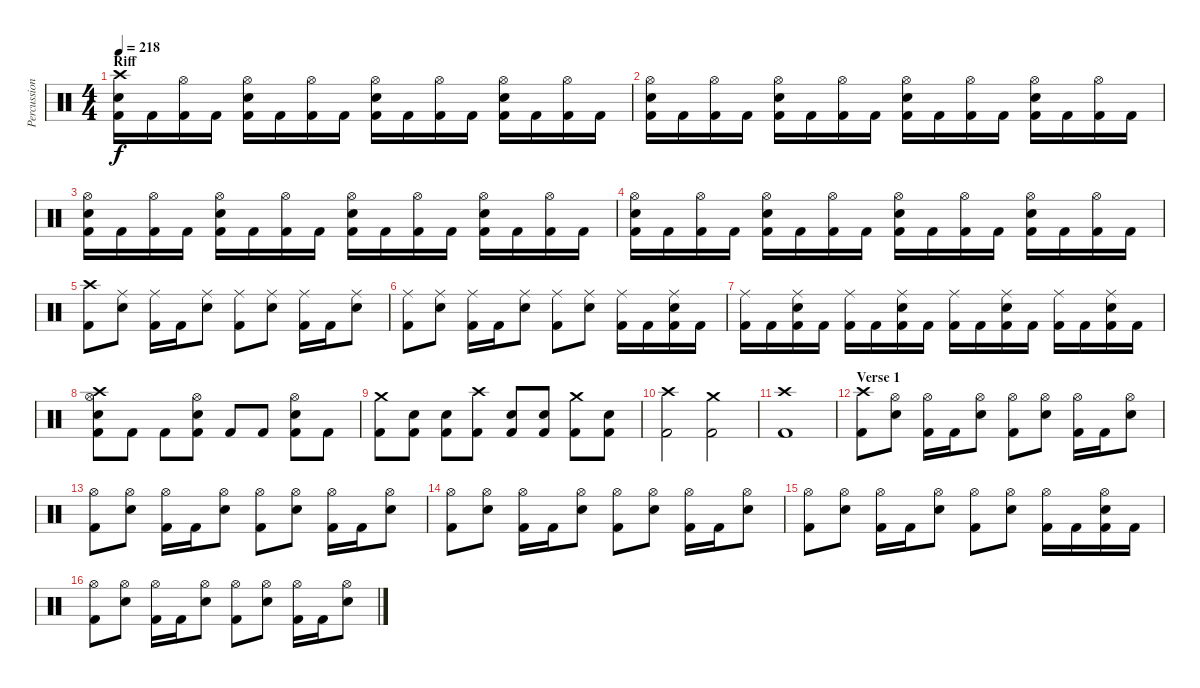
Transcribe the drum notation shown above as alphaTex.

\track ("Percussion" "Percussion") {instrument percussion}
\staff {score}
\articulation defaults
\ts (4 4)
\section ("" "Riff")
\tempo 218
\clef neutral
\ks c
("Crash high (hit)" "Electric Snare (hit)" "Kick (hit) 2").16{dy f} "Kick (hit) 2".16 ("Hi-Hat (open)" "Kick (hit) 2").16 "Kick (hit) 2".16 ("Hi-Hat (open)" "Electric Snare (hit)" "Kick (hit) 2").16 "Kick (hit) 2".16 ("Hi-Hat (open)" "Kick (hit) 2").16 "Kick (hit) 2".16 ("Hi-Hat (open)" "Electric Snare (hit)" "Kick (hit) 2").16 "Kick (hit) 2".16 ("Hi-Hat (open)" "Kick (hit) 2").16 "Kick (hit) 2".16 ("Hi-Hat (open)" "Electric Snare (hit)" "Kick (hit) 2").16 "Kick (hit) 2".16 ("Hi-Hat (open)" "Kick (hit) 2").16 "Kick (hit) 2".16 |
("Hi-Hat (open)" "Electric Snare (hit)" "Kick (hit) 2").16 "Kick (hit) 2".16 ("Hi-Hat (open)" "Kick (hit) 2").16 "Kick (hit) 2".16 ("Hi-Hat (open)" "Electric Snare (hit)" "Kick (hit) 2").16 "Kick (hit) 2".16 ("Hi-Hat (open)" "Kick (hit) 2").16 "Kick (hit) 2".16 ("Hi-Hat (open)" "Electric Snare (hit)" "Kick (hit) 2").16 "Kick (hit) 2".16 ("Hi-Hat (open)" "Kick (hit) 2").16 "Kick (hit) 2".16 ("Hi-Hat (open)" "Electric Snare (hit)" "Kick (hit) 2").16 "Kick (hit) 2".16 ("Hi-Hat (open)" "Kick (hit) 2").16 "Kick (hit) 2".16 |
("Hi-Hat (open)" "Electric Snare (hit)" "Kick (hit) 2").16 "Kick (hit) 2".16 ("Hi-Hat (open)" "Kick (hit) 2").16 "Kick (hit) 2".16 ("Hi-Hat (open)" "Electric Snare (hit)" "Kick (hit) 2").16 "Kick (hit) 2".16 ("Hi-Hat (open)" "Kick (hit) 2").16 "Kick (hit) 2".16 ("Hi-Hat (open)" "Electric Snare (hit)" "Kick (hit) 2").16 "Kick (hit) 2".16 ("Hi-Hat (open)" "Kick (hit) 2").16 "Kick (hit) 2".16 ("Hi-Hat (open)" "Electric Snare (hit)" "Kick (hit) 2").16 "Kick (hit) 2".16 ("Hi-Hat (open)" "Kick (hit) 2").16 "Kick (hit) 2".16 |
("Hi-Hat (open)" "Electric Snare (hit)" "Kick (hit) 2").16 "Kick (hit) 2".16 ("Hi-Hat (open)" "Kick (hit) 2").16 "Kick (hit) 2".16 ("Hi-Hat (open)" "Electric Snare (hit)" "Kick (hit) 2").16 "Kick (hit) 2".16 ("Hi-Hat (open)" "Kick (hit) 2").16 "Kick (hit) 2".16 ("Hi-Hat (open)" "Electric Snare (hit)" "Kick (hit) 2").16 "Kick (hit) 2".16 ("Hi-Hat (open)" "Kick (hit) 2").16 "Kick (hit) 2".16 ("Hi-Hat (open)" "Electric Snare (hit)" "Kick (hit) 2").16 "Kick (hit) 2".16 ("Hi-Hat (open)" "Kick (hit) 2").16 "Kick (hit) 2".16 |
("Crash high (hit)" "Kick (hit) 2").8 ("Ride (middle)" "Electric Snare (hit)").8 ("Ride (middle)" "Kick (hit) 2").16 "Kick (hit) 2".16 ("Ride (middle)" "Electric Snare (hit)").8 ("Ride (middle)" "Kick (hit) 2").8 ("Ride (middle)" "Electric Snare (hit)").8 ("Ride (middle)" "Kick (hit) 2").16 "Kick (hit) 2".16 ("Ride (middle)" "Electric Snare (hit)").8 |
("Ride (middle)" "Kick (hit) 2").8 ("Ride (middle)" "Electric Snare (hit)").8 ("Ride (middle)" "Kick (hit) 2").16 "Kick (hit) 2".16 ("Ride (middle)" "Electric Snare (hit)").8 ("Ride (middle)" "Kick (hit) 2").8 ("Ride (middle)" "Electric Snare (hit)").8 ("Ride (middle)" "Kick (hit) 2").16 "Kick (hit) 2".16 ("Ride (middle)" "Electric Snare (hit)" "Kick (hit) 2").16 "Kick (hit) 2".16 |
("Ride (middle)" "Kick (hit) 2").16 "Kick (hit) 2".16 ("Ride (middle)" "Electric Snare (hit)" "Kick (hit) 2").16 "Kick (hit) 2".16 ("Ride (middle)" "Kick (hit) 2").16 "Kick (hit) 2".16 ("Ride (middle)" "Electric Snare (hit)" "Kick (hit) 2").16 "Kick (hit) 2".16 ("Ride (middle)" "Kick (hit) 2").16 "Kick (hit) 2".16 ("Ride (middle)" "Electric Snare (hit)" "Kick (hit) 2").16 "Kick (hit) 2".16 ("Ride (middle)" "Kick (hit) 2").16 "Kick (hit) 2".16 ("Ride (middle)" "Electric Snare (hit)" "Kick (hit) 2").16 "Kick (hit) 2".16 |
("Crash high (hit)" "Hi-Hat (open)" "Electric Snare (hit)" "Kick (hit) 2").8 "Kick (hit) 2".8 "Kick (hit) 2".8 ("Hi-Hat (open)" "Electric Snare (hit)" "Kick (hit) 2").8 "Kick (hit) 2".8 "Kick (hit) 2".8 ("Hi-Hat (open)" "Electric Snare (hit)" "Kick (hit) 2").8 "Kick (hit) 2".8 |
("Crash medium (hit)" "Kick (hit) 2").8 ("Electric Snare (hit)" "Kick (hit) 2").8 ("Electric Snare (hit)" "Kick (hit) 2").8 ("Crash high (hit)" "Kick (hit) 2").8 ("Electric Snare (hit)" "Kick (hit) 2").8 ("Electric Snare (hit)" "Kick (hit) 2").8 ("Crash medium (hit)" "Kick (hit) 2").8 ("Electric Snare (hit)" "Kick (hit) 2").8 |
("Crash high (hit)" "Kick (hit) 2").2 ("Crash medium (hit)" "Kick (hit) 2").2 |
("Crash high (hit)" "Kick (hit) 2").1 |
\section ("" "Verse 1")
("Crash high (hit)" "Kick (hit) 2").8 ("Hi-Hat (open)" "Electric Snare (hit)").8 ("Hi-Hat (open)" "Kick (hit) 2").16 "Kick (hit) 2".16 ("Hi-Hat (open)" "Electric Snare (hit)").8 ("Hi-Hat (open)" "Kick (hit) 2").8 ("Hi-Hat (open)" "Electric Snare (hit)").8 ("Hi-Hat (open)" "Kick (hit) 2").16 "Kick (hit) 2".16 ("Hi-Hat (open)" "Electric Snare (hit)").8 |
("Hi-Hat (open)" "Kick (hit) 2").8 ("Hi-Hat (open)" "Electric Snare (hit)").8 ("Hi-Hat (open)" "Kick (hit) 2").16 "Kick (hit) 2".16 ("Hi-Hat (open)" "Electric Snare (hit)").8 ("Hi-Hat (open)" "Kick (hit) 2").8 ("Hi-Hat (open)" "Electric Snare (hit)").8 ("Hi-Hat (open)" "Kick (hit) 2").16 "Kick (hit) 2".16 ("Hi-Hat (open)" "Electric Snare (hit)").8 |
("Hi-Hat (open)" "Kick (hit) 2").8 ("Hi-Hat (open)" "Electric Snare (hit)").8 ("Hi-Hat (open)" "Kick (hit) 2").16 "Kick (hit) 2".16 ("Hi-Hat (open)" "Electric Snare (hit)").8 ("Hi-Hat (open)" "Kick (hit) 2").8 ("Hi-Hat (open)" "Electric Snare (hit)").8 ("Hi-Hat (open)" "Kick (hit) 2").16 "Kick (hit) 2".16 ("Hi-Hat (open)" "Electric Snare (hit)").8 |
("Hi-Hat (open)" "Kick (hit) 2").8 ("Hi-Hat (open)" "Electric Snare (hit)").8 ("Hi-Hat (open)" "Kick (hit) 2").16 "Kick (hit) 2".16 ("Hi-Hat (open)" "Electric Snare (hit)").8 ("Hi-Hat (open)" "Kick (hit) 2").8 ("Hi-Hat (open)" "Electric Snare (hit)").8 ("Hi-Hat (open)" "Kick (hit) 2").16 "Kick (hit) 2".16 ("Hi-Hat (open)" "Electric Snare (hit)" "Kick (hit) 2").16 "Kick (hit) 2".16 |
("Hi-Hat (open)" "Kick (hit) 2").8 ("Hi-Hat (open)" "Electric Snare (hit)").8 ("Hi-Hat (open)" "Kick (hit) 2").16 "Kick (hit) 2".16 ("Hi-Hat (open)" "Electric Snare (hit)").8 ("Hi-Hat (open)" "Kick (hit) 2").8 ("Hi-Hat (open)" "Electric Snare (hit)").8 ("Hi-Hat (open)" "Kick (hit) 2").16 "Kick (hit) 2".16 ("Hi-Hat (open)" "Electric Snare (hit)").8
